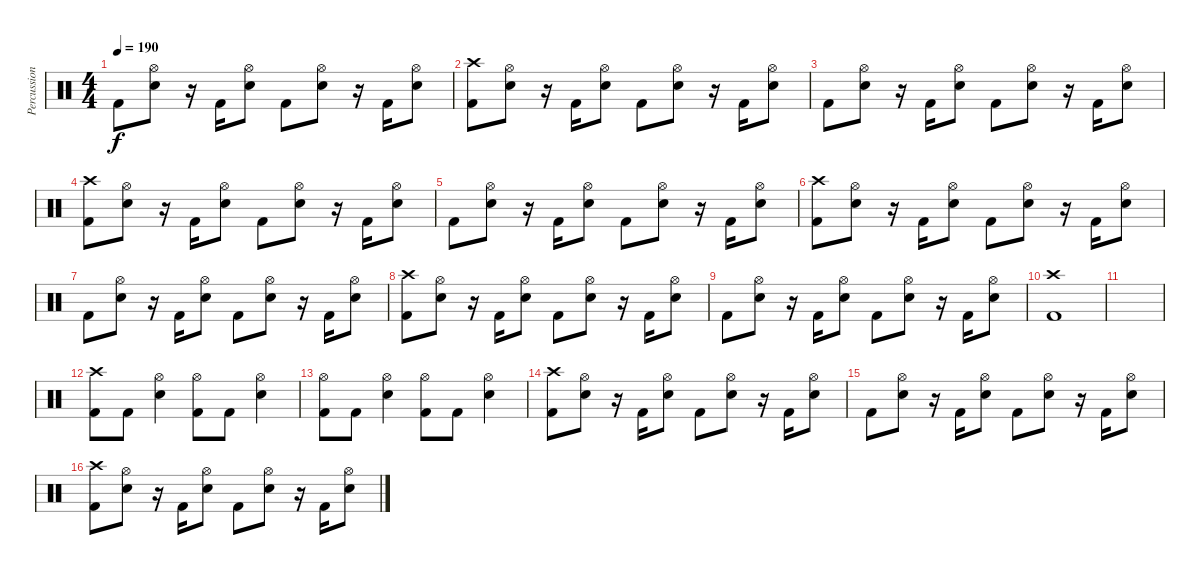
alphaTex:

\track ("Percussions" "Percussion") {instrument percussion}
\staff {score}
\articulation defaults
\ts (4 4)
\tempo 190
\clef neutral
\ks c "Kick (hit) 2".8{dy f}
("Hi-Hat (open)" "Electric Snare (hit)").8 r.16 "Kick (hit) 2".16 ("Hi-Hat (open)" "Electric Snare (hit)").8 "Kick (hit) 2".8 ("Hi-Hat (open)" "Electric Snare (hit)").8 r.16 "Kick (hit) 2".16 ("Hi-Hat (open)" "Electric Snare (hit)").8 |
("Crash high (hit)" "Kick (hit) 2").8 ("Hi-Hat (open)" "Electric Snare (hit)").8 r.16 "Kick (hit) 2".16 ("Hi-Hat (open)" "Electric Snare (hit)").8 "Kick (hit) 2".8 ("Hi-Hat (open)" "Electric Snare (hit)").8 r.16 "Kick (hit) 2".16 ("Hi-Hat (open)" "Electric Snare (hit)").8 |
"Kick (hit) 2".8 ("Hi-Hat (open)" "Electric Snare (hit)").8 r.16 "Kick (hit) 2".16 ("Hi-Hat (open)" "Electric Snare (hit)").8 "Kick (hit) 2".8 ("Hi-Hat (open)" "Electric Snare (hit)").8 r.16 "Kick (hit) 2".16 ("Hi-Hat (open)" "Electric Snare (hit)").8 |
("Crash high (hit)" "Kick (hit) 2").8 ("Hi-Hat (open)" "Electric Snare (hit)").8 r.16 "Kick (hit) 2".16 ("Hi-Hat (open)" "Electric Snare (hit)").8 "Kick (hit) 2".8 ("Hi-Hat (open)" "Electric Snare (hit)").8 r.16 "Kick (hit) 2".16 ("Hi-Hat (open)" "Electric Snare (hit)").8 |
"Kick (hit) 2".8 ("Hi-Hat (open)" "Electric Snare (hit)").8 r.16 "Kick (hit) 2".16 ("Hi-Hat (open)" "Electric Snare (hit)").8 "Kick (hit) 2".8 ("Hi-Hat (open)" "Electric Snare (hit)").8 r.16 "Kick (hit) 2".16 ("Hi-Hat (open)" "Electric Snare (hit)").8 |
("Crash high (hit)" "Kick (hit) 2").8 ("Hi-Hat (open)" "Electric Snare (hit)").8 r.16 "Kick (hit) 2".16 ("Hi-Hat (open)" "Electric Snare (hit)").8 "Kick (hit) 2".8 ("Hi-Hat (open)" "Electric Snare (hit)").8 r.16 "Kick (hit) 2".16 ("Hi-Hat (open)" "Electric Snare (hit)").8 |
"Kick (hit) 2".8 ("Hi-Hat (open)" "Electric Snare (hit)").8 r.16 "Kick (hit) 2".16 ("Hi-Hat (open)" "Electric Snare (hit)").8 "Kick (hit) 2".8 ("Hi-Hat (open)" "Electric Snare (hit)").8 r.16 "Kick (hit) 2".16 ("Hi-Hat (open)" "Electric Snare (hit)").8 |
("Crash high (hit)" "Kick (hit) 2").8 ("Hi-Hat (open)" "Electric Snare (hit)").8 r.16 "Kick (hit) 2".16 ("Hi-Hat (open)" "Electric Snare (hit)").8 "Kick (hit) 2".8 ("Hi-Hat (open)" "Electric Snare (hit)").8 r.16 "Kick (hit) 2".16 ("Hi-Hat (open)" "Electric Snare (hit)").8 |
"Kick (hit) 2".8 ("Hi-Hat (open)" "Electric Snare (hit)").8 r.16 "Kick (hit) 2".16 ("Hi-Hat (open)" "Electric Snare (hit)").8 "Kick (hit) 2".8 ("Hi-Hat (open)" "Electric Snare (hit)").8 r.16 "Kick (hit) 2".16 ("Hi-Hat (open)" "Electric Snare (hit)").8 |
("Crash high (hit)" "Kick (hit) 2").1 |
|
("Crash high (hit)" "Kick (hit) 2").8 "Kick (hit) 2".8 ("Hi-Hat (open)" "Electric Snare (hit)").4 ("Hi-Hat (open)" "Kick (hit) 2").8 "Kick (hit) 2".8 ("Hi-Hat (open)" "Electric Snare (hit)").4 |
("Hi-Hat (open)" "Kick (hit) 2").8 "Kick (hit) 2".8 ("Hi-Hat (open)" "Electric Snare (hit)").4 ("Hi-Hat (open)" "Kick (hit) 2").8 "Kick (hit) 2".8 ("Hi-Hat (open)" "Electric Snare (hit)").4 |
("Crash high (hit)" "Kick (hit) 2").8 ("Hi-Hat (open)" "Electric Snare (hit)").8 r.16 "Kick (hit) 2".16 ("Hi-Hat (open)" "Electric Snare (hit)").8 "Kick (hit) 2".8 ("Hi-Hat (open)" "Electric Snare (hit)").8 r.16 "Kick (hit) 2".16 ("Hi-Hat (open)" "Electric Snare (hit)").8 |
"Kick (hit) 2".8 ("Hi-Hat (open)" "Electric Snare (hit)").8 r.16 "Kick (hit) 2".16 ("Hi-Hat (open)" "Electric Snare (hit)").8 "Kick (hit) 2".8 ("Hi-Hat (open)" "Electric Snare (hit)").8 r.16 "Kick (hit) 2".16 ("Hi-Hat (open)" "Electric Snare (hit)").8 |
("Crash high (hit)" "Kick (hit) 2").8 ("Hi-Hat (open)" "Electric Snare (hit)").8 r.16 "Kick (hit) 2".16 ("Hi-Hat (open)" "Electric Snare (hit)").8 "Kick (hit) 2".8 ("Hi-Hat (open)" "Electric Snare (hit)").8 r.16 "Kick (hit) 2".16 ("Hi-Hat (open)" "Electric Snare (hit)").8
